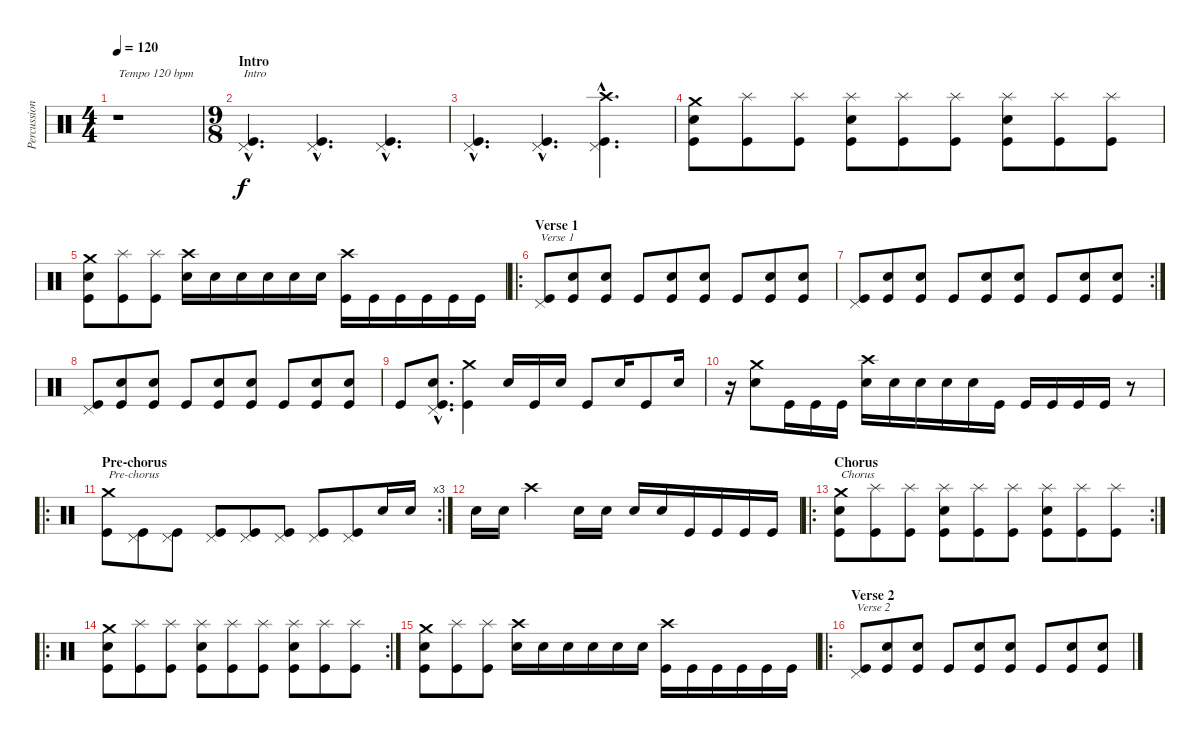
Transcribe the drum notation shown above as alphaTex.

\track ("Percussion" "Percussion") {instrument percussion}
\staff {score}
\articulation defaults
\ts (4 4)
\tempo 120
\clef neutral
\ks c
r.1{txt "Tempo 120 bpm" dy f} |
\ts (9 8)
\section ("" "Intro")
("Pedal Hi-Hat (hit)"{hac} "Kick (hit)"{hac}).4{d txt "Intro"} ("Pedal Hi-Hat (hit)"{hac} "Kick (hit)"{hac}).4{d} ("Pedal Hi-Hat (hit)"{hac} "Kick (hit)"{hac}).4{d} |
("Pedal Hi-Hat (hit)"{hac} "Kick (hit)"{hac}).4{d} ("Pedal Hi-Hat (hit)"{hac} "Kick (hit)"{hac}).4{d} ("Crash high (hit)"{hac} "Pedal Hi-Hat (hit)"{hac} "Kick (hit)"{hac}).4{d} |
("Crash medium (hit)" "Snare (hit) 2" "Kick (hit)").8 ("Splash (hit)" "Kick (hit)").8 ("Splash (hit)" "Kick (hit)").8 ("Splash (hit)" "Snare (hit) 2" "Kick (hit)").8 ("Splash (hit)" "Kick (hit)").8 ("Splash (hit)" "Kick (hit)").8 ("Splash (hit)" "Snare (hit) 2" "Kick (hit)").8 ("Splash (hit)" "Kick (hit)").8 ("Splash (hit)" "Kick (hit)").8 |
("Crash medium (hit)" "Snare (hit) 2" "Kick (hit)").8 ("Splash (hit)" "Kick (hit)").8 ("Splash (hit)" "Kick (hit)").8 ("Crash high (hit)" "Snare (hit) 2").16 "Snare (hit) 2".16 "Snare (hit) 2".16 "Snare (hit) 2".16 "Snare (hit) 2".16 "Snare (hit) 2".16 ("Crash high (hit)" "Kick (hit)").16 "Kick (hit)".16 "Kick (hit)".16 "Kick (hit)".16 "Kick (hit)".16 "Kick (hit)".16 |
\ro
\section ("" "Verse 1")
("Pedal Hi-Hat (hit)" "Kick (hit)").8{txt "Verse 1"} ("Snare (hit) 2" "Kick (hit)").8 ("Snare (hit) 2" "Kick (hit)").8 "Kick (hit)".8 ("Snare (hit) 2" "Kick (hit)").8 ("Snare (hit) 2" "Kick (hit)").8 "Kick (hit)".8 ("Snare (hit) 2" "Kick (hit)").8 ("Snare (hit) 2" "Kick (hit)").8 |
\rc 2
("Pedal Hi-Hat (hit)" "Kick (hit)").8 ("Snare (hit) 2" "Kick (hit)").8 ("Snare (hit) 2" "Kick (hit)").8 "Kick (hit)".8 ("Snare (hit) 2" "Kick (hit)").8 ("Snare (hit) 2" "Kick (hit)").8 "Kick (hit)".8 ("Snare (hit) 2" "Kick (hit)").8 ("Snare (hit) 2" "Kick (hit)").8 |
("Pedal Hi-Hat (hit)" "Kick (hit)").8 ("Snare (hit) 2" "Kick (hit)").8 ("Snare (hit) 2" "Kick (hit)").8 "Kick (hit)".8 ("Snare (hit) 2" "Kick (hit)").8 ("Snare (hit) 2" "Kick (hit)").8 "Kick (hit)".8 ("Snare (hit) 2" "Kick (hit)").8 ("Snare (hit) 2" "Kick (hit)").8 |
"Kick (hit)".8 ("Pedal Hi-Hat (hit)"{hac} "Snare (hit) 2"{hac} "Kick (hit)"{hac}).8{d} ("Crash medium (hit)" "Kick (hit)").4 "Snare (hit) 2".16 "Kick (hit)".16 "Snare (hit) 2".16 "Kick (hit)".8 "Snare (hit) 2".16 "Kick (hit)".8 "Snare (hit) 2".16 |
r.16 ("Crash medium (hit)" "Snare (hit) 2").8 "Kick (hit)".16 "Kick (hit)".16 "Kick (hit)".16 ("Crash high (hit)" "Snare (hit) 2").16 "Snare (hit) 2".16 "Snare (hit) 2".16 "Snare (hit) 2".16 "Snare (hit) 2".16 "Kick (hit)".16 "Kick (hit)".16 "Kick (hit)".16 "Kick (hit)".16 "Kick (hit)".16 r.8 |
\ro
\rc 3
\section ("" "Pre-chorus")
("Crash medium (hit)" "Kick (hit)").8{txt "Pre-chorus"} ("Pedal Hi-Hat (hit)" "Kick (hit)").8 ("Pedal Hi-Hat (hit)" "Kick (hit)").8 ("Pedal Hi-Hat (hit)" "Kick (hit)").8 ("Pedal Hi-Hat (hit)" "Kick (hit)").8 ("Pedal Hi-Hat (hit)" "Kick (hit)").8 ("Pedal Hi-Hat (hit)" "Kick (hit)").8 ("Pedal Hi-Hat (hit)" "Kick (hit)").8 "Snare (hit) 2".16 "Snare (hit) 2".16 |
"Snare (hit) 2".16 "Snare (hit) 2".16 "Crash high (hit)".2 "Snare (hit) 2".16 "Snare (hit) 2".16 "Snare (hit) 2".16 "Snare (hit) 2".16 "Kick (hit)".16 "Kick (hit)".16 "Kick (hit)".16 "Kick (hit)".16 |
\ro
\rc 2
\section ("" "Chorus")
("Crash medium (hit)" "Snare (hit) 2" "Kick (hit)").8{txt "Chorus"} ("Splash (hit)" "Kick (hit)").8 ("Splash (hit)" "Kick (hit)").8 ("Splash (hit)" "Snare (hit) 2" "Kick (hit)").8 ("Splash (hit)" "Kick (hit)").8 ("Splash (hit)" "Kick (hit)").8 ("Splash (hit)" "Snare (hit) 2" "Kick (hit)").8 ("Splash (hit)" "Kick (hit)").8 ("Splash (hit)" "Kick (hit)").8 |
\ro
\rc 2
("Crash medium (hit)" "Snare (hit) 2" "Kick (hit)").8 ("Splash (hit)" "Kick (hit)").8 ("Splash (hit)" "Kick (hit)").8 ("Splash (hit)" "Snare (hit) 2" "Kick (hit)").8 ("Splash (hit)" "Kick (hit)").8 ("Splash (hit)" "Kick (hit)").8 ("Splash (hit)" "Snare (hit) 2" "Kick (hit)").8 ("Splash (hit)" "Kick (hit)").8 ("Splash (hit)" "Kick (hit)").8 |
("Crash medium (hit)" "Snare (hit) 2" "Kick (hit)").8 ("Splash (hit)" "Kick (hit)").8 ("Splash (hit)" "Kick (hit)").8 ("Crash high (hit)" "Snare (hit) 2").16 "Snare (hit) 2".16 "Snare (hit) 2".16 "Snare (hit) 2".16 "Snare (hit) 2".16 "Snare (hit) 2".16 ("Crash high (hit)" "Kick (hit)").16 "Kick (hit)".16 "Kick (hit)".16 "Kick (hit)".16 "Kick (hit)".16 "Kick (hit)".16 |
\ro
\section ("" "Verse 2")
("Pedal Hi-Hat (hit)" "Kick (hit)").8{txt "Verse 2"} ("Snare (hit) 2" "Kick (hit)").8 ("Snare (hit) 2" "Kick (hit)").8 "Kick (hit)".8 ("Snare (hit) 2" "Kick (hit)").8 ("Snare (hit) 2" "Kick (hit)").8 "Kick (hit)".8 ("Snare (hit) 2" "Kick (hit)").8 ("Snare (hit) 2" "Kick (hit)").8
